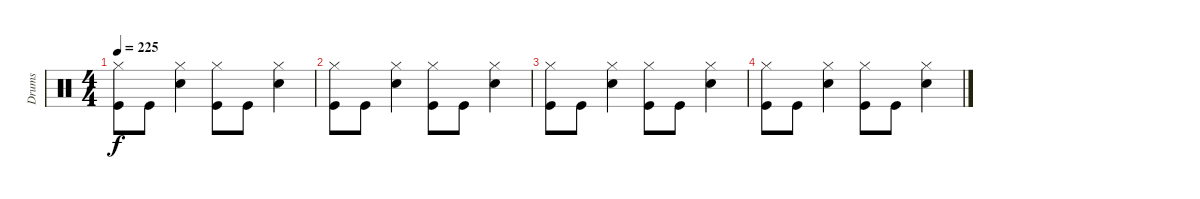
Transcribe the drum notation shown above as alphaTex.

\track ("Drums" "Drums") {instrument percussion}
\staff {score}
\articulation defaults
\ts (4 4)
\tempo 225
\clef neutral
\ks c
("Kick (hit)" "Hi-Hat (closed)").8{dy f} "Kick (hit)".8 ("Electric Snare (hit)" "Hi-Hat (closed)").4 ("Kick (hit)" "Hi-Hat (closed)").8 "Kick (hit)".8 ("Electric Snare (hit)" "Hi-Hat (closed)").4 |
("Kick (hit)" "Hi-Hat (closed)").8 "Kick (hit)".8 ("Electric Snare (hit)" "Hi-Hat (closed)").4 ("Kick (hit)" "Hi-Hat (closed)").8 "Kick (hit)".8 ("Electric Snare (hit)" "Hi-Hat (closed)").4 |
("Kick (hit)" "Hi-Hat (closed)").8 "Kick (hit)".8 ("Electric Snare (hit)" "Hi-Hat (closed)").4 ("Kick (hit)" "Hi-Hat (closed)").8 "Kick (hit)".8 ("Electric Snare (hit)" "Hi-Hat (closed)").4 |
("Kick (hit)" "Hi-Hat (closed)").8 "Kick (hit)".8 ("Electric Snare (hit)" "Hi-Hat (closed)").4 ("Kick (hit)" "Hi-Hat (closed)").8 "Kick (hit)".8 ("Electric Snare (hit)" "Hi-Hat (closed)").4
